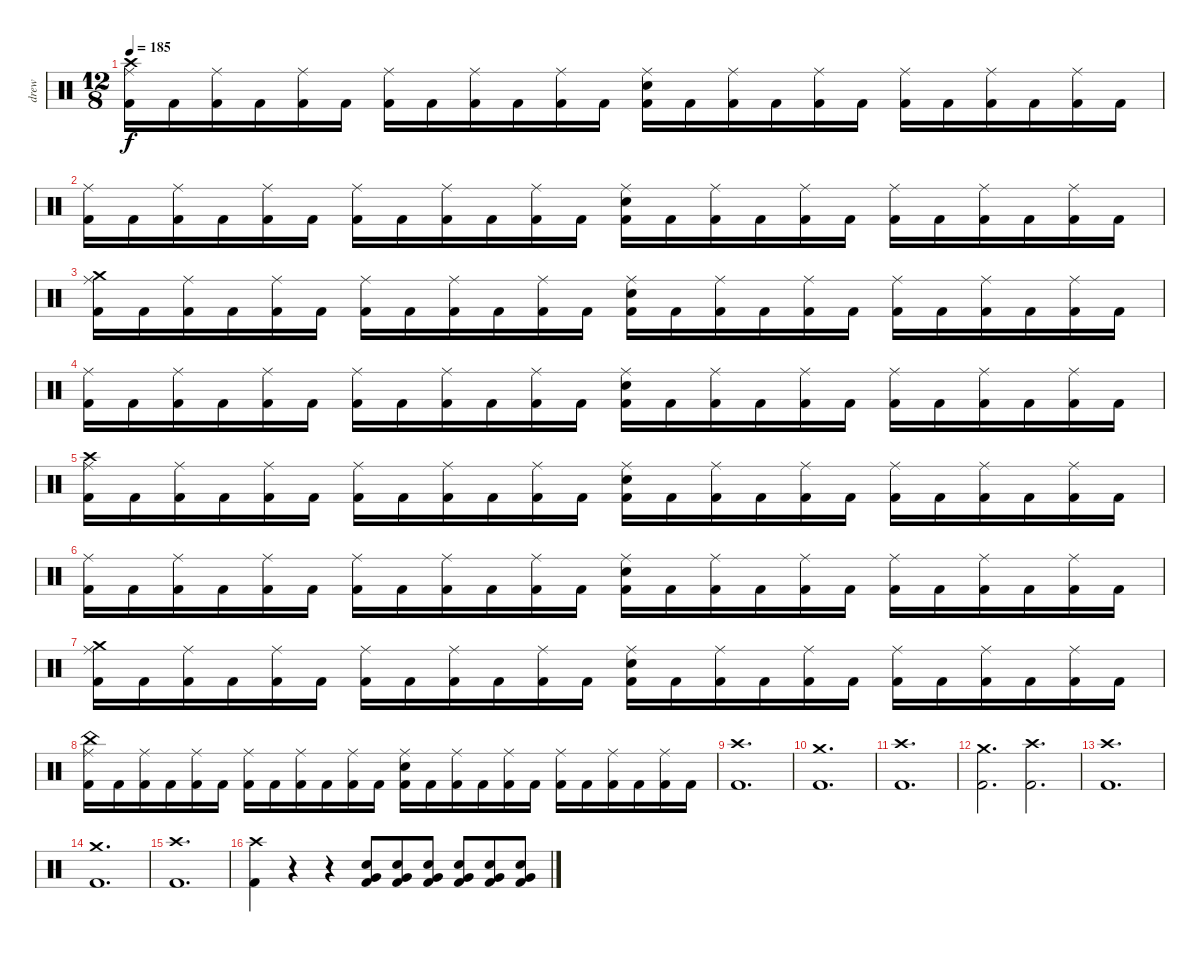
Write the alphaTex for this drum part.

\track ("drew" "drew") {instrument percussion}
\staff {score}
\articulation defaults
\ts (12 8)
\tempo 185
\clef neutral
\ks c
("Crash high (hit)" "Ride (middle)" "Kick (hit) 2").16{dy f} "Kick (hit) 2".16 ("Ride (middle)" "Kick (hit) 2").16 "Kick (hit) 2".16 ("Ride (middle)" "Kick (hit) 2").16 "Kick (hit) 2".16 ("Ride (middle)" "Kick (hit) 2").16 "Kick (hit) 2".16 ("Ride (middle)" "Kick (hit) 2").16 "Kick (hit) 2".16 ("Ride (middle)" "Kick (hit) 2").16 "Kick (hit) 2".16 ("Snare (hit) 2" "Ride (middle)" "Kick (hit) 2").16 "Kick (hit) 2".16 ("Ride (middle)" "Kick (hit) 2").16 "Kick (hit) 2".16 ("Ride (middle)" "Kick (hit) 2").16 "Kick (hit) 2".16 ("Ride (middle)" "Kick (hit) 2").16 "Kick (hit) 2".16 ("Ride (middle)" "Kick (hit) 2").16 "Kick (hit) 2".16 ("Ride (middle)" "Kick (hit) 2").16 "Kick (hit) 2".16 |
("Ride (middle)" "Kick (hit) 2").16 "Kick (hit) 2".16 ("Ride (middle)" "Kick (hit) 2").16 "Kick (hit) 2".16 ("Ride (middle)" "Kick (hit) 2").16 "Kick (hit) 2".16 ("Ride (middle)" "Kick (hit) 2").16 "Kick (hit) 2".16 ("Ride (middle)" "Kick (hit) 2").16 "Kick (hit) 2".16 ("Ride (middle)" "Kick (hit) 2").16 "Kick (hit) 2".16 ("Snare (hit) 2" "Ride (middle)" "Kick (hit) 2").16 "Kick (hit) 2".16 ("Ride (middle)" "Kick (hit) 2").16 "Kick (hit) 2".16 ("Ride (middle)" "Kick (hit) 2").16 "Kick (hit) 2".16 ("Ride (middle)" "Kick (hit) 2").16 "Kick (hit) 2".16 ("Ride (middle)" "Kick (hit) 2").16 "Kick (hit) 2".16 ("Ride (middle)" "Kick (hit) 2").16 "Kick (hit) 2".16 |
("Crash medium (hit)" "Ride (middle)" "Kick (hit) 2").16 "Kick (hit) 2".16 ("Ride (middle)" "Kick (hit) 2").16 "Kick (hit) 2".16 ("Ride (middle)" "Kick (hit) 2").16 "Kick (hit) 2".16 ("Ride (middle)" "Kick (hit) 2").16 "Kick (hit) 2".16 ("Ride (middle)" "Kick (hit) 2").16 "Kick (hit) 2".16 ("Ride (middle)" "Kick (hit) 2").16 "Kick (hit) 2".16 ("Snare (hit) 2" "Ride (middle)" "Kick (hit) 2").16 "Kick (hit) 2".16 ("Ride (middle)" "Kick (hit) 2").16 "Kick (hit) 2".16 ("Ride (middle)" "Kick (hit) 2").16 "Kick (hit) 2".16 ("Ride (middle)" "Kick (hit) 2").16 "Kick (hit) 2".16 ("Ride (middle)" "Kick (hit) 2").16 "Kick (hit) 2".16 ("Ride (middle)" "Kick (hit) 2").16 "Kick (hit) 2".16 |
("Ride (middle)" "Kick (hit) 2").16 "Kick (hit) 2".16 ("Ride (middle)" "Kick (hit) 2").16 "Kick (hit) 2".16 ("Ride (middle)" "Kick (hit) 2").16 "Kick (hit) 2".16 ("Ride (middle)" "Kick (hit) 2").16 "Kick (hit) 2".16 ("Ride (middle)" "Kick (hit) 2").16 "Kick (hit) 2".16 ("Ride (middle)" "Kick (hit) 2").16 "Kick (hit) 2".16 ("Snare (hit) 2" "Ride (middle)" "Kick (hit) 2").16 "Kick (hit) 2".16 ("Ride (middle)" "Kick (hit) 2").16 "Kick (hit) 2".16 ("Ride (middle)" "Kick (hit) 2").16 "Kick (hit) 2".16 ("Ride (middle)" "Kick (hit) 2").16 "Kick (hit) 2".16 ("Ride (middle)" "Kick (hit) 2").16 "Kick (hit) 2".16 ("Ride (middle)" "Kick (hit) 2").16 "Kick (hit) 2".16 |
("Crash high (hit)" "Ride (middle)" "Kick (hit) 2").16 "Kick (hit) 2".16 ("Ride (middle)" "Kick (hit) 2").16 "Kick (hit) 2".16 ("Ride (middle)" "Kick (hit) 2").16 "Kick (hit) 2".16 ("Ride (middle)" "Kick (hit) 2").16 "Kick (hit) 2".16 ("Ride (middle)" "Kick (hit) 2").16 "Kick (hit) 2".16 ("Ride (middle)" "Kick (hit) 2").16 "Kick (hit) 2".16 ("Snare (hit) 2" "Ride (middle)" "Kick (hit) 2").16 "Kick (hit) 2".16 ("Ride (middle)" "Kick (hit) 2").16 "Kick (hit) 2".16 ("Ride (middle)" "Kick (hit) 2").16 "Kick (hit) 2".16 ("Ride (middle)" "Kick (hit) 2").16 "Kick (hit) 2".16 ("Ride (middle)" "Kick (hit) 2").16 "Kick (hit) 2".16 ("Ride (middle)" "Kick (hit) 2").16 "Kick (hit) 2".16 |
("Ride (middle)" "Kick (hit) 2").16 "Kick (hit) 2".16 ("Ride (middle)" "Kick (hit) 2").16 "Kick (hit) 2".16 ("Ride (middle)" "Kick (hit) 2").16 "Kick (hit) 2".16 ("Ride (middle)" "Kick (hit) 2").16 "Kick (hit) 2".16 ("Ride (middle)" "Kick (hit) 2").16 "Kick (hit) 2".16 ("Ride (middle)" "Kick (hit) 2").16 "Kick (hit) 2".16 ("Snare (hit) 2" "Ride (middle)" "Kick (hit) 2").16 "Kick (hit) 2".16 ("Ride (middle)" "Kick (hit) 2").16 "Kick (hit) 2".16 ("Ride (middle)" "Kick (hit) 2").16 "Kick (hit) 2".16 ("Ride (middle)" "Kick (hit) 2").16 "Kick (hit) 2".16 ("Ride (middle)" "Kick (hit) 2").16 "Kick (hit) 2".16 ("Ride (middle)" "Kick (hit) 2").16 "Kick (hit) 2".16 |
("Crash medium (hit)" "Ride (middle)" "Kick (hit) 2").16 "Kick (hit) 2".16 ("Ride (middle)" "Kick (hit) 2").16 "Kick (hit) 2".16 ("Ride (middle)" "Kick (hit) 2").16 "Kick (hit) 2".16 ("Ride (middle)" "Kick (hit) 2").16 "Kick (hit) 2".16 ("Ride (middle)" "Kick (hit) 2").16 "Kick (hit) 2".16 ("Ride (middle)" "Kick (hit) 2").16 "Kick (hit) 2".16 ("Snare (hit) 2" "Ride (middle)" "Kick (hit) 2").16 "Kick (hit) 2".16 ("Ride (middle)" "Kick (hit) 2").16 "Kick (hit) 2".16 ("Ride (middle)" "Kick (hit) 2").16 "Kick (hit) 2".16 ("Ride (middle)" "Kick (hit) 2").16 "Kick (hit) 2".16 ("Ride (middle)" "Kick (hit) 2").16 "Kick (hit) 2".16 ("Ride (middle)" "Kick (hit) 2").16 "Kick (hit) 2".16 |
("China (hit)" "Ride (middle)" "Kick (hit) 2").16 "Kick (hit) 2".16 ("Ride (middle)" "Kick (hit) 2").16 "Kick (hit) 2".16 ("Ride (middle)" "Kick (hit) 2").16 "Kick (hit) 2".16 ("Ride (middle)" "Kick (hit) 2").16 "Kick (hit) 2".16 ("Ride (middle)" "Kick (hit) 2").16 "Kick (hit) 2".16 ("Ride (middle)" "Kick (hit) 2").16 "Kick (hit) 2".16 ("Snare (hit) 2" "Ride (middle)" "Kick (hit) 2").16 "Kick (hit) 2".16 ("Ride (middle)" "Kick (hit) 2").16 "Kick (hit) 2".16 ("Ride (middle)" "Kick (hit) 2").16 "Kick (hit) 2".16 ("Ride (middle)" "Kick (hit) 2").16 "Kick (hit) 2".16 ("Ride (middle)" "Kick (hit) 2").16 "Kick (hit) 2".16 ("Ride (middle)" "Kick (hit) 2").16 "Kick (hit) 2".16 |
("Crash high (hit)" "Kick (hit) 2").1{d} |
("Crash medium (hit)" "Kick (hit) 2").1{d} |
("Crash high (hit)" "Kick (hit) 2").1{d} |
("Crash medium (hit)" "Kick (hit) 2").2{d} ("Crash high (hit)" "Kick (hit) 2").2{d} |
("Crash high (hit)" "Kick (hit) 2").1{d} |
("Crash medium (hit)" "Kick (hit) 2").1{d} |
("Crash high (hit)" "Kick (hit) 2").1{d} |
("Crash high (hit)" "Kick (hit) 2").4 r.4 r.4 ("Snare (hit) 2" "Very Low Tom (hit)" "Kick (hit) 2").8 ("Snare (hit) 2" "Very Low Tom (hit)" "Kick (hit) 2").8 ("Snare (hit) 2" "Very Low Tom (hit)" "Kick (hit) 2").8 ("Snare (hit) 2" "Very Low Tom (hit)" "Kick (hit) 2").8 ("Snare (hit) 2" "Very Low Tom (hit)" "Kick (hit) 2").8 ("Snare (hit) 2" "Very Low Tom (hit)" "Kick (hit) 2").8
